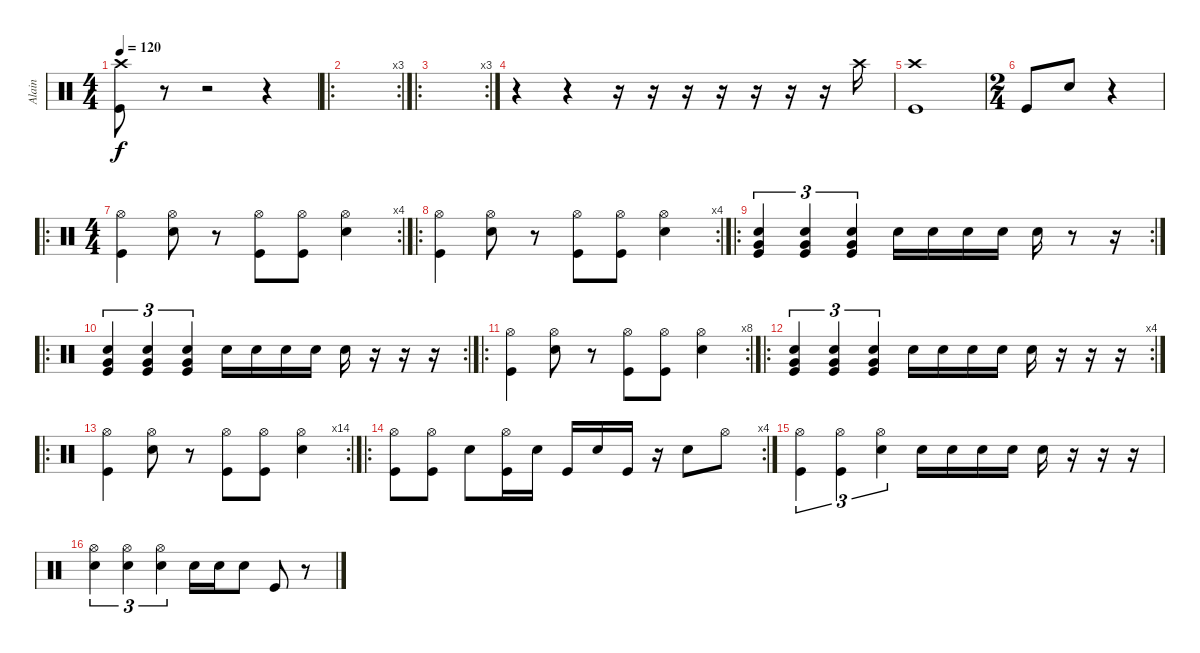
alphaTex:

\track ("Alain" "Alain") {instrument percussion}
\staff {score}
\articulation defaults
\ts (4 4)
\tempo 120
\clef neutral
\ks c
("Crash high (hit)" "Kick (hit)").8{dy f} r.8 r.2 r.4 |
\ro
\rc 3
|
\ro
\rc 3
|
r.4 r.4 r.16 r.16 r.16 r.16 r.16 r.16 r.16 "Crash high (hit)".16 |
("Crash high (hit)" "Kick (hit)").1 |
\ts (2 4)
"Kick (hit)".8 "Electric Snare (hit)".8 r.4 |
\ro
\rc 4
\ts (4 4)
("Hi-Hat (open)" "Kick (hit)").4 ("Hi-Hat (open)" "Electric Snare (hit)").8 r.8 ("Hi-Hat (open)" "Kick (hit)").8 ("Hi-Hat (open)" "Kick (hit)").8 ("Hi-Hat (open)" "Electric Snare (hit)").4 |
\ro
\rc 4
("Hi-Hat (open)" "Kick (hit)").4 ("Hi-Hat (open)" "Electric Snare (hit)").8 r.8 ("Hi-Hat (open)" "Kick (hit)").8 ("Hi-Hat (open)" "Kick (hit)").8 ("Hi-Hat (open)" "Electric Snare (hit)").4 |
\ro
\rc 2
("Very Low Tom (hit)" "Electric Snare (hit)" "Kick (hit)").4{tu (3 2)} ("Very Low Tom (hit)" "Electric Snare (hit)" "Kick (hit)").4{tu (3 2)} ("Very Low Tom (hit)" "Electric Snare (hit)" "Kick (hit)").4{tu (3 2)} "Electric Snare (hit)".16 "Electric Snare (hit)".16 "Electric Snare (hit)".16 "Electric Snare (hit)".16 "Electric Snare (hit)".16 r.8 r.16 |
\ro
\rc 2
("Very Low Tom (hit)" "Electric Snare (hit)" "Kick (hit)").4{tu (3 2)} ("Very Low Tom (hit)" "Electric Snare (hit)" "Kick (hit)").4{tu (3 2)} ("Very Low Tom (hit)" "Electric Snare (hit)" "Kick (hit)").4{tu (3 2)} "Electric Snare (hit)".16 "Electric Snare (hit)".16 "Electric Snare (hit)".16 "Electric Snare (hit)".16 "Electric Snare (hit)".16 r.16 r.16 r.16 |
\ro
\rc 8
("Hi-Hat (open)" "Kick (hit)").4 ("Hi-Hat (open)" "Electric Snare (hit)").8 r.8 ("Hi-Hat (open)" "Kick (hit)").8 ("Hi-Hat (open)" "Kick (hit)").8 ("Hi-Hat (open)" "Electric Snare (hit)").4 |
\ro
\rc 4
("Very Low Tom (hit)" "Electric Snare (hit)" "Kick (hit)").4{tu (3 2)} ("Very Low Tom (hit)" "Electric Snare (hit)" "Kick (hit)").4{tu (3 2)} ("Very Low Tom (hit)" "Electric Snare (hit)" "Kick (hit)").4{tu (3 2)} "Electric Snare (hit)".16 "Electric Snare (hit)".16 "Electric Snare (hit)".16 "Electric Snare (hit)".16 "Electric Snare (hit)".16 r.16 r.16 r.16 |
\ro
\rc 14
("Hi-Hat (open)" "Kick (hit)").4 ("Hi-Hat (open)" "Electric Snare (hit)").8 r.8 ("Hi-Hat (open)" "Kick (hit)").8 ("Hi-Hat (open)" "Kick (hit)").8 ("Hi-Hat (open)" "Electric Snare (hit)").4 |
\ro
\rc 4
("Hi-Hat (open)" "Kick (hit)").8 ("Hi-Hat (open)" "Kick (hit)").8 "Electric Snare (hit)".8 ("Hi-Hat (open)" "Kick (hit)").16 "Electric Snare (hit)".16 "Kick (hit)".16 "Electric Snare (hit)".16 "Kick (hit)".16 r.16 "Electric Snare (hit)".8 "Hi-Hat (open)".8 |
("Hi-Hat (open)" "Kick (hit)").4{tu (3 2)} ("Hi-Hat (open)" "Kick (hit)").4{tu (3 2)} ("Hi-Hat (open)" "Electric Snare (hit)").4{tu (3 2)} "Electric Snare (hit)".16 "Electric Snare (hit)".16 "Electric Snare (hit)".16 "Electric Snare (hit)".16 "Electric Snare (hit)".16 r.16 r.16 r.16 |
("Hi-Hat (open)" "Electric Snare (hit)").4{tu (3 2)} ("Hi-Hat (open)" "Electric Snare (hit)").4{tu (3 2)} ("Hi-Hat (open)" "Electric Snare (hit)").4{tu (3 2)} "Electric Snare (hit)".16 "Electric Snare (hit)".16 "Electric Snare (hit)".8 "Kick (hit)".8 r.8
